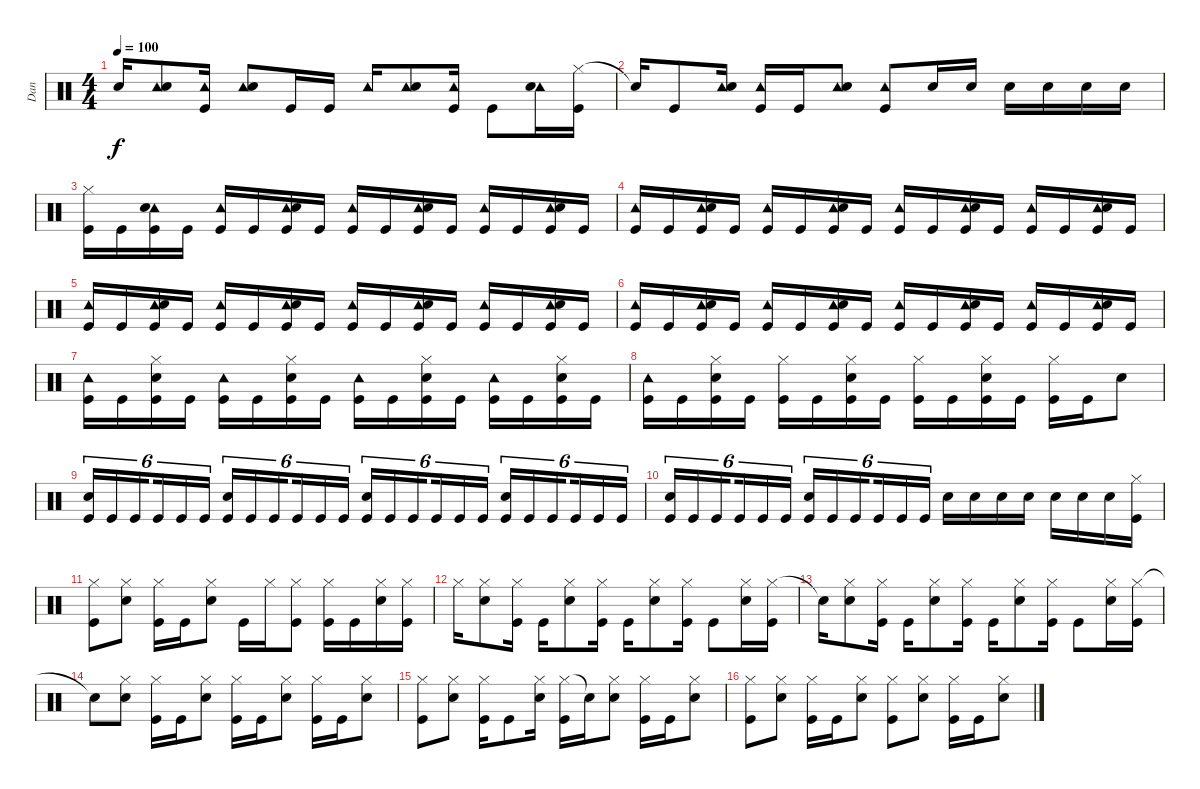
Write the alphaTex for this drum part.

\track ("Dan" "Dan") {instrument percussion}
\staff {score}
\articulation defaults
\ts (4 4)
\tempo 100
\clef neutral
\ks c "Snare (hit)"{t}.16{dy f}
("Tambourine (hit)" "Snare (hit) 2").8 ("Tambourine (hit)" "Kick (hit)").16 ("Tambourine (hit)" "Snare (hit) 2").8 "Kick (hit)".16 "Kick (hit)".16 "Tambourine (hit)".16 ("Tambourine (hit)" "Snare (hit) 2").8 ("Tambourine (hit)" "Kick (hit)").16 "Kick (hit)".8 ("Tambourine (hit)" "Snare (hit) 2").16 ("Hi-Hat (closed)" "Kick (hit)").16 |
"Snare (hit)"{t}.16 "Kick (hit)".8 ("Tambourine (hit)" "Snare (hit) 2").16 ("Tambourine (hit)" "Kick (hit)").16 "Kick (hit)".16 ("Tambourine (hit)" "Snare (hit) 2").8 ("Tambourine (hit)" "Kick (hit)").8 "Snare (hit) 2".16 "Snare (hit) 2".16 "Snare (hit) 2".16 "Snare (hit) 2".16 "Snare (hit) 2".16 "Snare (hit) 2".16 |
("Hi-Hat (closed)" "Kick (hit)").16 "Kick (hit)".16 ("Tambourine (hit)" "Snare (hit) 2" "Kick (hit)").16 "Kick (hit)".16 ("Tambourine (hit)" "Kick (hit)").16 "Kick (hit)".16 ("Tambourine (hit)" "Snare (hit) 2" "Kick (hit)").16 "Kick (hit)".16 ("Tambourine (hit)" "Kick (hit)").16 "Kick (hit)".16 ("Tambourine (hit)" "Snare (hit) 2" "Kick (hit)").16 "Kick (hit)".16 ("Tambourine (hit)" "Kick (hit)").16 "Kick (hit)".16 ("Tambourine (hit)" "Snare (hit) 2" "Kick (hit)").16 "Kick (hit)".16 |
("Tambourine (hit)" "Kick (hit)").16 "Kick (hit)".16 ("Tambourine (hit)" "Snare (hit) 2" "Kick (hit)").16 "Kick (hit)".16 ("Tambourine (hit)" "Kick (hit)").16 "Kick (hit)".16 ("Tambourine (hit)" "Snare (hit) 2" "Kick (hit)").16 "Kick (hit)".16 ("Tambourine (hit)" "Kick (hit)").16 "Kick (hit)".16 ("Tambourine (hit)" "Snare (hit) 2" "Kick (hit)").16 "Kick (hit)".16 ("Tambourine (hit)" "Kick (hit)").16 "Kick (hit)".16 ("Tambourine (hit)" "Snare (hit) 2" "Kick (hit)").16 "Kick (hit)".16 |
("Tambourine (hit)" "Kick (hit)").16 "Kick (hit)".16 ("Tambourine (hit)" "Snare (hit) 2" "Kick (hit)").16 "Kick (hit)".16 ("Tambourine (hit)" "Kick (hit)").16 "Kick (hit)".16 ("Tambourine (hit)" "Snare (hit) 2" "Kick (hit)").16 "Kick (hit)".16 ("Tambourine (hit)" "Kick (hit)").16 "Kick (hit)".16 ("Tambourine (hit)" "Snare (hit) 2" "Kick (hit)").16 "Kick (hit)".16 ("Tambourine (hit)" "Kick (hit)").16 "Kick (hit)".16 ("Tambourine (hit)" "Snare (hit) 2" "Kick (hit)").16 "Kick (hit)".16 |
("Tambourine (hit)" "Kick (hit)").16 "Kick (hit)".16 ("Tambourine (hit)" "Snare (hit) 2" "Kick (hit)").16 "Kick (hit)".16 ("Tambourine (hit)" "Kick (hit)").16 "Kick (hit)".16 ("Tambourine (hit)" "Snare (hit) 2" "Kick (hit)").16 "Kick (hit)".16 ("Tambourine (hit)" "Kick (hit)").16 "Kick (hit)".16 ("Tambourine (hit)" "Snare (hit) 2" "Kick (hit)").16 "Kick (hit)".16 ("Tambourine (hit)" "Kick (hit)").16 "Kick (hit)".16 ("Tambourine (hit)" "Snare (hit) 2" "Kick (hit)").16 "Kick (hit)".16 |
("Tambourine (hit)" "Kick (hit)").16 "Kick (hit)".16 ("Hi-Hat (closed)" "Snare (hit) 2" "Kick (hit)").16 "Kick (hit)".16 ("Tambourine (hit)" "Kick (hit)").16 "Kick (hit)".16 ("Hi-Hat (closed)" "Snare (hit) 2" "Kick (hit)").16 "Kick (hit)".16 ("Tambourine (hit)" "Kick (hit)").16 "Kick (hit)".16 ("Hi-Hat (closed)" "Snare (hit) 2" "Kick (hit)").16 "Kick (hit)".16 ("Tambourine (hit)" "Kick (hit)").16 "Kick (hit)".16 ("Hi-Hat (closed)" "Snare (hit) 2" "Kick (hit)").16 "Kick (hit)".16 |
("Tambourine (hit)" "Kick (hit)").16 "Kick (hit)".16 ("Hi-Hat (closed)" "Snare (hit) 2" "Kick (hit)").16 "Kick (hit)".16 ("Hi-Hat (closed)" "Kick (hit)").16 "Kick (hit)".16 ("Hi-Hat (closed)" "Snare (hit) 2" "Kick (hit)").16 "Kick (hit)".16 ("Hi-Hat (closed)" "Kick (hit)").16 "Kick (hit)".16 ("Hi-Hat (closed)" "Snare (hit) 2" "Kick (hit)").16 "Kick (hit)".16 ("Hi-Hat (closed)" "Kick (hit)").16 "Kick (hit)".16 "Snare (hit) 2".8 |
("Snare (hit) 2" "Kick (hit)").16{tu (6 4)} "Kick (hit)".16{tu (6 4)} "Kick (hit)".16{tu (6 4) beam splitsecondary} "Kick (hit)".16{tu (6 4)} "Kick (hit)".16{tu (6 4)} "Kick (hit)".16{tu (6 4)} ("Snare (hit) 2" "Kick (hit)").16{tu (6 4)} "Kick (hit)".16{tu (6 4)} "Kick (hit)".16{tu (6 4) beam splitsecondary} "Kick (hit)".16{tu (6 4)} "Kick (hit)".16{tu (6 4)} "Kick (hit)".16{tu (6 4)} ("Snare (hit) 2" "Kick (hit)").16{tu (6 4)} "Kick (hit)".16{tu (6 4)} "Kick (hit)".16{tu (6 4) beam splitsecondary} "Kick (hit)".16{tu (6 4)} "Kick (hit)".16{tu (6 4)} "Kick (hit)".16{tu (6 4)} ("Snare (hit) 2" "Kick (hit)").16{tu (6 4)} "Kick (hit)".16{tu (6 4)} "Kick (hit)".16{tu (6 4) beam splitsecondary} "Kick (hit)".16{tu (6 4)} "Kick (hit)".16{tu (6 4)} "Kick (hit)".16{tu (6 4)} |
("Snare (hit) 2" "Kick (hit)").16{tu (6 4)} "Kick (hit)".16{tu (6 4)} "Kick (hit)".16{tu (6 4) beam splitsecondary} "Kick (hit)".16{tu (6 4)} "Kick (hit)".16{tu (6 4)} "Kick (hit)".16{tu (6 4)} ("Snare (hit) 2" "Kick (hit)").16{tu (6 4)} "Kick (hit)".16{tu (6 4)} "Kick (hit)".16{tu (6 4) beam splitsecondary} "Kick (hit)".16{tu (6 4)} "Kick (hit)".16{tu (6 4)} "Kick (hit)".16{tu (6 4)} "Snare (hit) 2".16 "Snare (hit) 2".16 "Snare (hit) 2".16 "Snare (hit) 2".16 "Snare (hit) 2".16 "Snare (hit) 2".16 "Snare (hit) 2".16 ("Hi-Hat (closed)" "Kick (hit)").16 |
("Hi-Hat (closed)" "Kick (hit)").8 ("Hi-Hat (closed)" "Snare (hit) 2").8 ("Hi-Hat (closed)" "Kick (hit)").16 "Kick (hit)".16 ("Hi-Hat (closed)" "Snare (hit) 2").8 "Kick (hit)".16 "Hi-Hat (closed)".16 ("Hi-Hat (closed)" "Kick (hit)").8 ("Hi-Hat (closed)" "Kick (hit)").16 "Kick (hit)".16 ("Hi-Hat (closed)" "Snare (hit) 2").16 ("Hi-Hat (closed)" "Kick (hit)").16 |
"Hi-Hat (closed)".16 ("Hi-Hat (closed)" "Snare (hit) 2").8 ("Hi-Hat (closed)" "Kick (hit)").16 "Kick (hit)".16 ("Hi-Hat (closed)" "Snare (hit) 2").8 ("Hi-Hat (closed)" "Kick (hit)").16 "Kick (hit)".16 ("Hi-Hat (closed)" "Snare (hit) 2").8 ("Hi-Hat (closed)" "Kick (hit)").16 "Kick (hit)".8 ("Hi-Hat (closed)" "Snare (hit) 2").16 ("Hi-Hat (closed)" "Kick (hit)").16 |
"Snare (hit)"{t}.16 ("Hi-Hat (closed)" "Snare (hit) 2").8 ("Hi-Hat (closed)" "Kick (hit)").16 "Kick (hit)".16 ("Hi-Hat (closed)" "Snare (hit) 2").8 ("Hi-Hat (closed)" "Kick (hit)").16 "Kick (hit)".16 ("Hi-Hat (closed)" "Snare (hit) 2").8 ("Hi-Hat (closed)" "Kick (hit)").16 "Kick (hit)".8 ("Hi-Hat (closed)" "Snare (hit) 2").16 ("Hi-Hat (closed)" "Kick (hit)").16 |
"Snare (hit)"{t}.8 ("Hi-Hat (closed)" "Snare (hit) 2").8 ("Hi-Hat (closed)" "Kick (hit)").16 "Kick (hit)".16 ("Hi-Hat (closed)" "Snare (hit) 2").8 ("Hi-Hat (closed)" "Kick (hit)").16 "Kick (hit)".16 ("Hi-Hat (closed)" "Snare (hit) 2").8 ("Hi-Hat (closed)" "Kick (hit)").16 "Kick (hit)".16 ("Hi-Hat (closed)" "Snare (hit) 2").8 |
("Hi-Hat (closed)" "Kick (hit)").8 ("Hi-Hat (closed)" "Snare (hit) 2").8 ("Hi-Hat (closed)" "Kick (hit)").16 "Kick (hit)".8 ("Hi-Hat (closed)" "Snare (hit) 2").16 ("Hi-Hat (closed)" "Kick (hit)").16 "Snare (hit)"{t}.16 ("Hi-Hat (closed)" "Snare (hit) 2").8 ("Hi-Hat (closed)" "Kick (hit)").16 "Kick (hit)".16 ("Hi-Hat (closed)" "Snare (hit) 2").8 |
("Hi-Hat (closed)" "Kick (hit)").8 ("Hi-Hat (closed)" "Snare (hit) 2").8 ("Hi-Hat (closed)" "Kick (hit)").16 "Kick (hit)".16 ("Hi-Hat (closed)" "Snare (hit) 2").8 ("Hi-Hat (closed)" "Kick (hit)").8 ("Hi-Hat (closed)" "Snare (hit) 2").8 ("Hi-Hat (closed)" "Kick (hit)").16 "Kick (hit)".16 ("Hi-Hat (closed)" "Snare (hit) 2").8
